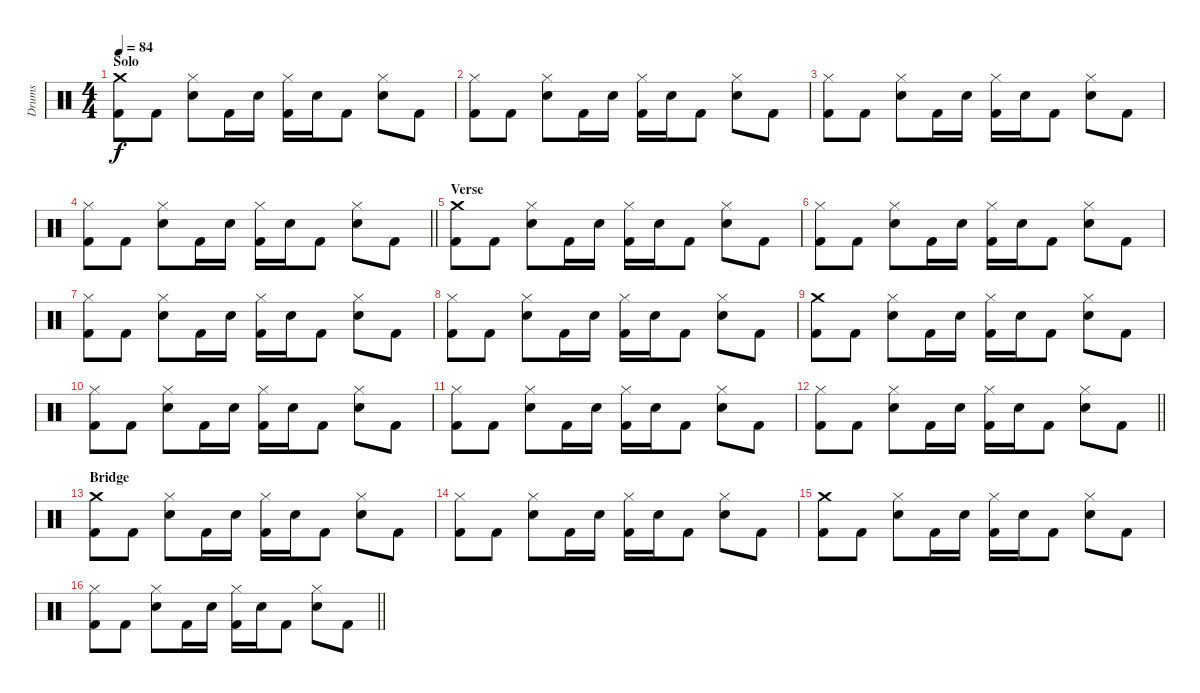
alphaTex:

\track ("Drums" "Drums") {instrument percussion}
\staff {score}
\articulation defaults
\ts (4 4)
\section ("" "Solo")
\tempo 84
\clef neutral
\ks c
("Crash medium (hit)" "Kick (hit) 2").8{dy f} "Kick (hit) 2".8 ("Hi-Hat (closed)" "Snare (hit) 2").8 "Kick (hit) 2".16 "Snare (hit) 2".16 ("Hi-Hat (closed)" "Kick (hit) 2").16 "Snare (hit) 2".16 "Kick (hit) 2".8 ("Hi-Hat (closed)" "Snare (hit) 2").8 "Kick (hit) 2".8 |
("Hi-Hat (closed)" "Kick (hit) 2").8 "Kick (hit) 2".8 ("Hi-Hat (closed)" "Snare (hit) 2").8 "Kick (hit) 2".16 "Snare (hit) 2".16 ("Hi-Hat (closed)" "Kick (hit) 2").16 "Snare (hit) 2".16 "Kick (hit) 2".8 ("Hi-Hat (closed)" "Snare (hit) 2").8 "Kick (hit) 2".8 |
("Hi-Hat (closed)" "Kick (hit) 2").8 "Kick (hit) 2".8 ("Hi-Hat (closed)" "Snare (hit) 2").8 "Kick (hit) 2".16 "Snare (hit) 2".16 ("Hi-Hat (closed)" "Kick (hit) 2").16 "Snare (hit) 2".16 "Kick (hit) 2".8 ("Hi-Hat (closed)" "Snare (hit) 2").8 "Kick (hit) 2".8 |
\barLineRight lightlight
("Hi-Hat (closed)" "Kick (hit) 2").8 "Kick (hit) 2".8 ("Hi-Hat (closed)" "Snare (hit) 2").8 "Kick (hit) 2".16 "Snare (hit) 2".16 ("Hi-Hat (closed)" "Kick (hit) 2").16 "Snare (hit) 2".16 "Kick (hit) 2".8 ("Hi-Hat (closed)" "Snare (hit) 2").8 "Kick (hit) 2".8 |
\section ("" "Verse")
("Crash medium (hit)" "Kick (hit) 2").8 "Kick (hit) 2".8 ("Hi-Hat (closed)" "Snare (hit) 2").8 "Kick (hit) 2".16 "Snare (hit) 2".16 ("Hi-Hat (closed)" "Kick (hit) 2").16 "Snare (hit) 2".16 "Kick (hit) 2".8 ("Hi-Hat (closed)" "Snare (hit) 2").8 "Kick (hit) 2".8 |
("Hi-Hat (closed)" "Kick (hit) 2").8 "Kick (hit) 2".8 ("Hi-Hat (closed)" "Snare (hit) 2").8 "Kick (hit) 2".16 "Snare (hit) 2".16 ("Hi-Hat (closed)" "Kick (hit) 2").16 "Snare (hit) 2".16 "Kick (hit) 2".8 ("Hi-Hat (closed)" "Snare (hit) 2").8 "Kick (hit) 2".8 |
("Hi-Hat (closed)" "Kick (hit) 2").8 "Kick (hit) 2".8 ("Hi-Hat (closed)" "Snare (hit) 2").8 "Kick (hit) 2".16 "Snare (hit) 2".16 ("Hi-Hat (closed)" "Kick (hit) 2").16 "Snare (hit) 2".16 "Kick (hit) 2".8 ("Hi-Hat (closed)" "Snare (hit) 2").8 "Kick (hit) 2".8 |
("Hi-Hat (closed)" "Kick (hit) 2").8 "Kick (hit) 2".8 ("Hi-Hat (closed)" "Snare (hit) 2").8 "Kick (hit) 2".16 "Snare (hit) 2".16 ("Hi-Hat (closed)" "Kick (hit) 2").16 "Snare (hit) 2".16 "Kick (hit) 2".8 ("Hi-Hat (closed)" "Snare (hit) 2").8 "Kick (hit) 2".8 |
("Crash medium (hit)" "Kick (hit) 2").8 "Kick (hit) 2".8 ("Hi-Hat (closed)" "Snare (hit) 2").8 "Kick (hit) 2".16 "Snare (hit) 2".16 ("Hi-Hat (closed)" "Kick (hit) 2").16 "Snare (hit) 2".16 "Kick (hit) 2".8 ("Hi-Hat (closed)" "Snare (hit) 2").8 "Kick (hit) 2".8 |
("Hi-Hat (closed)" "Kick (hit) 2").8 "Kick (hit) 2".8 ("Hi-Hat (closed)" "Snare (hit) 2").8 "Kick (hit) 2".16 "Snare (hit) 2".16 ("Hi-Hat (closed)" "Kick (hit) 2").16 "Snare (hit) 2".16 "Kick (hit) 2".8 ("Hi-Hat (closed)" "Snare (hit) 2").8 "Kick (hit) 2".8 |
("Hi-Hat (closed)" "Kick (hit) 2").8 "Kick (hit) 2".8 ("Hi-Hat (closed)" "Snare (hit) 2").8 "Kick (hit) 2".16 "Snare (hit) 2".16 ("Hi-Hat (closed)" "Kick (hit) 2").16 "Snare (hit) 2".16 "Kick (hit) 2".8 ("Hi-Hat (closed)" "Snare (hit) 2").8 "Kick (hit) 2".8 |
\barLineRight lightlight
("Hi-Hat (closed)" "Kick (hit) 2").8 "Kick (hit) 2".8 ("Hi-Hat (closed)" "Snare (hit) 2").8 "Kick (hit) 2".16 "Snare (hit) 2".16 ("Hi-Hat (closed)" "Kick (hit) 2").16 "Snare (hit) 2".16 "Kick (hit) 2".8 ("Hi-Hat (closed)" "Snare (hit) 2").8 "Kick (hit) 2".8 |
\section ("" "Bridge")
("Crash medium (hit)" "Kick (hit) 2").8 "Kick (hit) 2".8 ("Hi-Hat (closed)" "Snare (hit) 2").8 "Kick (hit) 2".16 "Snare (hit) 2".16 ("Hi-Hat (closed)" "Kick (hit) 2").16 "Snare (hit) 2".16 "Kick (hit) 2".8 ("Hi-Hat (closed)" "Snare (hit) 2").8 "Kick (hit) 2".8 |
("Hi-Hat (closed)" "Kick (hit) 2").8 "Kick (hit) 2".8 ("Hi-Hat (closed)" "Snare (hit) 2").8 "Kick (hit) 2".16 "Snare (hit) 2".16 ("Hi-Hat (closed)" "Kick (hit) 2").16 "Snare (hit) 2".16 "Kick (hit) 2".8 ("Hi-Hat (closed)" "Snare (hit) 2").8 "Kick (hit) 2".8 |
("Crash medium (hit)" "Kick (hit) 2").8 "Kick (hit) 2".8 ("Hi-Hat (closed)" "Snare (hit) 2").8 "Kick (hit) 2".16 "Snare (hit) 2".16 ("Hi-Hat (closed)" "Kick (hit) 2").16 "Snare (hit) 2".16 "Kick (hit) 2".8 ("Hi-Hat (closed)" "Snare (hit) 2").8 "Kick (hit) 2".8 |
\barLineRight lightlight
("Hi-Hat (closed)" "Kick (hit) 2").8 "Kick (hit) 2".8 ("Hi-Hat (closed)" "Snare (hit) 2").8 "Kick (hit) 2".16 "Snare (hit) 2".16 ("Hi-Hat (closed)" "Kick (hit) 2").16 "Snare (hit) 2".16 "Kick (hit) 2".8 ("Hi-Hat (closed)" "Snare (hit) 2").8 "Kick (hit) 2".8
